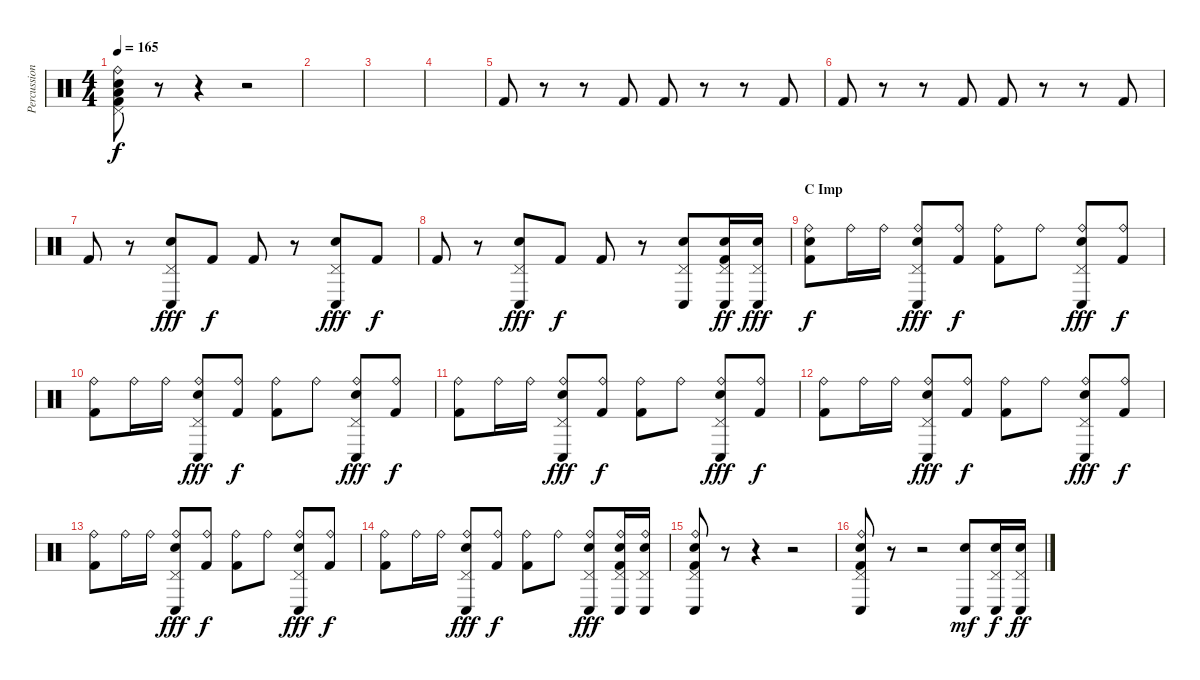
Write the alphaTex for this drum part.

\track ("Percussion" "Percussion") {instrument percussion}
\staff {score}
\articulation defaults
\ts (4 4)
\tempo 165
\clef neutral
\ks c
("Ride (bell)" "Pedal Hi-Hat (hit)" "Low Floor Tom (hit)" "Electric Snare (hit)" "Kick (hit) 2").8{dy f} r.8 r.4 r.2 |
|
|
|
"Kick (hit) 2".8 r.8 r.8 "Kick (hit) 2".8 "Kick (hit) 2".8 r.8 r.8 "Kick (hit) 2".8 |
"Kick (hit) 2".8 r.8 r.8 "Kick (hit) 2".8 "Kick (hit) 2".8 r.8 r.8 "Kick (hit) 2".8 |
"Kick (hit) 2".8 r.8 ("Pedal Hi-Hat (hit)" "Conga low (hit)" "Electric Snare (hit)").8{dy fff} "Kick (hit) 2".8{dy f} "Kick (hit) 2".8 r.8 ("Pedal Hi-Hat (hit)" "Conga low (hit)" "Electric Snare (hit)").8{dy fff} "Kick (hit) 2".8{dy f} |
"Kick (hit) 2".8 r.8 ("Pedal Hi-Hat (hit)" "Conga low (hit)" "Electric Snare (hit)").8{dy fff} "Kick (hit) 2".8{dy f} "Kick (hit) 2".8 r.8 ("Pedal Hi-Hat (hit)" "Conga low (hit)" "Electric Snare (hit)").8 ("Pedal Hi-Hat (hit)" "Conga low (hit)" "Electric Snare (hit)" "Kick (hit) 2").16{dy ff} ("Pedal Hi-Hat (hit)" "Conga low (hit)" "Electric Snare (hit)").16{dy fff} |
\section ("" "C Imp")
("Ride (bell)" "Electric Snare (hit)" "Kick (hit) 2").8{dy f} "Ride (bell)".16 "Ride (bell)".16 ("Ride (bell)" "Pedal Hi-Hat (hit)" "Conga low (hit)" "Electric Snare (hit)").8{dy fff} ("Ride (bell)" "Kick (hit) 2").8{dy f} ("Ride (bell)" "Kick (hit) 2").8 "Ride (bell)".8 ("Ride (bell)" "Pedal Hi-Hat (hit)" "Conga low (hit)" "Electric Snare (hit)").8{dy fff} ("Ride (bell)" "Kick (hit) 2").8{dy f} |
("Ride (bell)" "Kick (hit) 2").8 "Ride (bell)".16 "Ride (bell)".16 ("Ride (bell)" "Pedal Hi-Hat (hit)" "Conga low (hit)" "Electric Snare (hit)").8{dy fff} ("Ride (bell)" "Kick (hit) 2").8{dy f} ("Ride (bell)" "Kick (hit) 2").8 "Ride (bell)".8 ("Ride (bell)" "Pedal Hi-Hat (hit)" "Conga low (hit)" "Electric Snare (hit)").8{dy fff} ("Ride (bell)" "Kick (hit) 2").8{dy f} |
("Ride (bell)" "Kick (hit) 2").8 "Ride (bell)".16 "Ride (bell)".16 ("Ride (bell)" "Pedal Hi-Hat (hit)" "Conga low (hit)" "Electric Snare (hit)").8{dy fff} ("Ride (bell)" "Kick (hit) 2").8{dy f} ("Ride (bell)" "Kick (hit) 2").8 "Ride (bell)".8 ("Ride (bell)" "Pedal Hi-Hat (hit)" "Conga low (hit)" "Electric Snare (hit)").8{dy fff} ("Ride (bell)" "Kick (hit) 2").8{dy f} |
("Ride (bell)" "Kick (hit) 2").8 "Ride (bell)".16 "Ride (bell)".16 ("Ride (bell)" "Pedal Hi-Hat (hit)" "Conga low (hit)" "Electric Snare (hit)").8{dy fff} ("Ride (bell)" "Kick (hit) 2").8{dy f} ("Ride (bell)" "Kick (hit) 2").8 "Ride (bell)".8 ("Ride (bell)" "Pedal Hi-Hat (hit)" "Conga low (hit)" "Electric Snare (hit)").8{dy fff} ("Ride (bell)" "Kick (hit) 2").8{dy f} |
("Ride (bell)" "Kick (hit) 2").8 "Ride (bell)".16 "Ride (bell)".16 ("Ride (bell)" "Pedal Hi-Hat (hit)" "Conga low (hit)" "Electric Snare (hit)").8{dy fff} ("Ride (bell)" "Kick (hit) 2").8{dy f} ("Ride (bell)" "Kick (hit) 2").8 "Ride (bell)".8 ("Ride (bell)" "Pedal Hi-Hat (hit)" "Conga low (hit)" "Electric Snare (hit)").8{dy fff} ("Ride (bell)" "Kick (hit) 2").8{dy f} |
("Ride (bell)" "Kick (hit) 2").8 "Ride (bell)".16 "Ride (bell)".16 ("Ride (bell)" "Pedal Hi-Hat (hit)" "Conga low (hit)" "Electric Snare (hit)").8{dy fff} ("Ride (bell)" "Kick (hit) 2").8{dy f} ("Ride (bell)" "Kick (hit) 2").8 "Ride (bell)".8 ("Ride (bell)" "Pedal Hi-Hat (hit)" "Conga low (hit)" "Electric Snare (hit)").8{dy fff} ("Ride (bell)" "Pedal Hi-Hat (hit)" "Conga low (hit)" "Electric Snare (hit)" "Kick (hit) 2").16 ("Ride (bell)" "Pedal Hi-Hat (hit)" "Conga low (hit)" "Electric Snare (hit)").16 |
("Ride (bell)" "Pedal Hi-Hat (hit)" "Conga low (hit)" "Electric Snare (hit)" "Kick (hit) 2").8 r.8 r.4 r.2 |
("Ride (bell)" "Pedal Hi-Hat (hit)" "Conga low (hit)" "Electric Snare (hit)" "Kick (hit) 2").8 r.8 r.2 ("Conga low (hit)" "Electric Snare (hit)").8{dy mf} ("Pedal Hi-Hat (hit)" "Conga low (hit)" "Electric Snare (hit)").16{dy f} ("Pedal Hi-Hat (hit)" "Conga low (hit)" "Electric Snare (hit)").16{dy ff}
